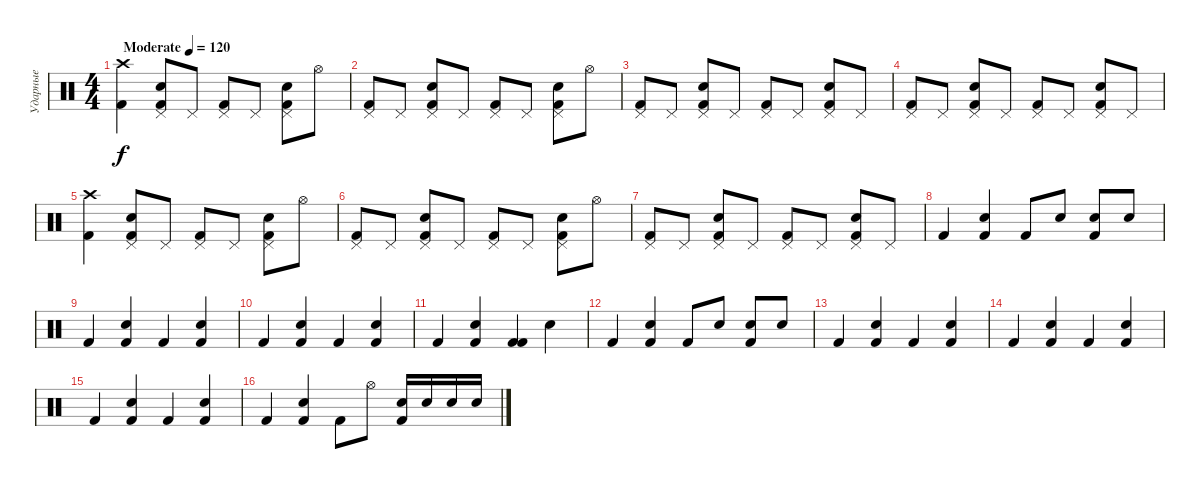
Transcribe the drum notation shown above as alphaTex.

\track ("Ударные" "Ударные") {instrument percussion}
\staff {score}
\articulation defaults
\ts (4 4)
\tempo (120 "Moderate")
\clef neutral
\ks c
("Crash high (hit)" "Kick (hit) 2").4{dy f} ("Snare (hit) 2" "Pedal Hi-Hat (hit)" "Kick (hit) 2").8 "Pedal Hi-Hat (hit)".8 ("Pedal Hi-Hat (hit)" "Kick (hit) 2").8 "Pedal Hi-Hat (hit)".8 ("Pedal Hi-Hat (hit)" "Snare (hit) 2" "Kick (hit) 2").8 "Hi-Hat (open)".8 |
("Pedal Hi-Hat (hit)" "Kick (hit) 2").8 "Pedal Hi-Hat (hit)".8 ("Pedal Hi-Hat (hit)" "Snare (hit) 2" "Kick (hit) 2").8 "Pedal Hi-Hat (hit)".8 ("Pedal Hi-Hat (hit)" "Kick (hit) 2").8 "Pedal Hi-Hat (hit)".8 ("Pedal Hi-Hat (hit)" "Snare (hit) 2" "Kick (hit) 2").8 "Hi-Hat (open)".8 |
("Pedal Hi-Hat (hit)" "Kick (hit) 2").8 "Pedal Hi-Hat (hit)".8 ("Pedal Hi-Hat (hit)" "Snare (hit) 2" "Kick (hit) 2").8 "Pedal Hi-Hat (hit)".8 ("Pedal Hi-Hat (hit)" "Kick (hit) 2").8 "Pedal Hi-Hat (hit)".8 ("Pedal Hi-Hat (hit)" "Snare (hit) 2" "Kick (hit) 2").8 "Pedal Hi-Hat (hit)".8 |
("Pedal Hi-Hat (hit)" "Kick (hit) 2").8 "Pedal Hi-Hat (hit)".8 ("Pedal Hi-Hat (hit)" "Snare (hit) 2" "Kick (hit) 2").8 "Pedal Hi-Hat (hit)".8 ("Pedal Hi-Hat (hit)" "Kick (hit) 2").8 "Pedal Hi-Hat (hit)".8 ("Pedal Hi-Hat (hit)" "Snare (hit) 2" "Kick (hit) 2").8 "Pedal Hi-Hat (hit)".8 |
("Crash high (hit)" "Kick (hit) 2").4 ("Snare (hit) 2" "Pedal Hi-Hat (hit)" "Kick (hit) 2").8 "Pedal Hi-Hat (hit)".8 ("Pedal Hi-Hat (hit)" "Kick (hit) 2").8 "Pedal Hi-Hat (hit)".8 ("Pedal Hi-Hat (hit)" "Snare (hit) 2" "Kick (hit) 2").8 "Hi-Hat (open)".8 |
("Pedal Hi-Hat (hit)" "Kick (hit) 2").8 "Pedal Hi-Hat (hit)".8 ("Pedal Hi-Hat (hit)" "Snare (hit) 2" "Kick (hit) 2").8 "Pedal Hi-Hat (hit)".8 ("Pedal Hi-Hat (hit)" "Kick (hit) 2").8 "Pedal Hi-Hat (hit)".8 ("Pedal Hi-Hat (hit)" "Snare (hit) 2" "Kick (hit) 2").8 "Hi-Hat (open)".8 |
("Pedal Hi-Hat (hit)" "Kick (hit) 2").8 "Pedal Hi-Hat (hit)".8 ("Pedal Hi-Hat (hit)" "Snare (hit) 2" "Kick (hit) 2").8 "Pedal Hi-Hat (hit)".8 ("Pedal Hi-Hat (hit)" "Kick (hit) 2").8 "Pedal Hi-Hat (hit)".8 ("Pedal Hi-Hat (hit)" "Snare (hit) 2" "Kick (hit) 2").8 "Pedal Hi-Hat (hit)".8 |
"Kick (hit) 2".4 ("Kick (hit) 2" "Snare (hit) 2").4 "Kick (hit) 2".8 "Snare (hit) 2".8 ("Kick (hit) 2" "Snare (hit) 2").8 "Snare (hit) 2".8 |
"Kick (hit) 2".4 ("Kick (hit) 2" "Snare (hit) 2").4 "Kick (hit) 2".4 ("Kick (hit) 2" "Snare (hit) 2").4 |
"Kick (hit) 2".4 ("Kick (hit) 2" "Snare (hit) 2").4 "Kick (hit) 2".4 ("Kick (hit) 2" "Snare (hit) 2").4 |
"Kick (hit) 2".4 ("Kick (hit) 2" "Snare (hit) 2").4 ("Kick (hit) 2" "Kick (hit) 2").4 "Snare (hit) 2".4 |
"Kick (hit) 2".4 ("Kick (hit) 2" "Snare (hit) 2").4 "Kick (hit) 2".8 "Snare (hit) 2".8 ("Kick (hit) 2" "Snare (hit) 2").8 "Snare (hit) 2".8 |
"Kick (hit) 2".4 ("Kick (hit) 2" "Snare (hit) 2").4 "Kick (hit) 2".4 ("Kick (hit) 2" "Snare (hit) 2").4 |
"Kick (hit) 2".4 ("Kick (hit) 2" "Snare (hit) 2").4 "Kick (hit) 2".4 ("Kick (hit) 2" "Snare (hit) 2").4 |
"Kick (hit) 2".4 ("Kick (hit) 2" "Snare (hit) 2").4 "Kick (hit) 2".4 ("Kick (hit) 2" "Snare (hit) 2").4 |
"Kick (hit) 2".4 ("Kick (hit) 2" "Snare (hit) 2").4 "Kick (hit) 2".8 "Hi-Hat (open)".8 ("Kick (hit) 2" "Snare (hit) 2").16 "Snare (hit) 2".16 "Snare (hit) 2".16 "Snare (hit) 2".16
